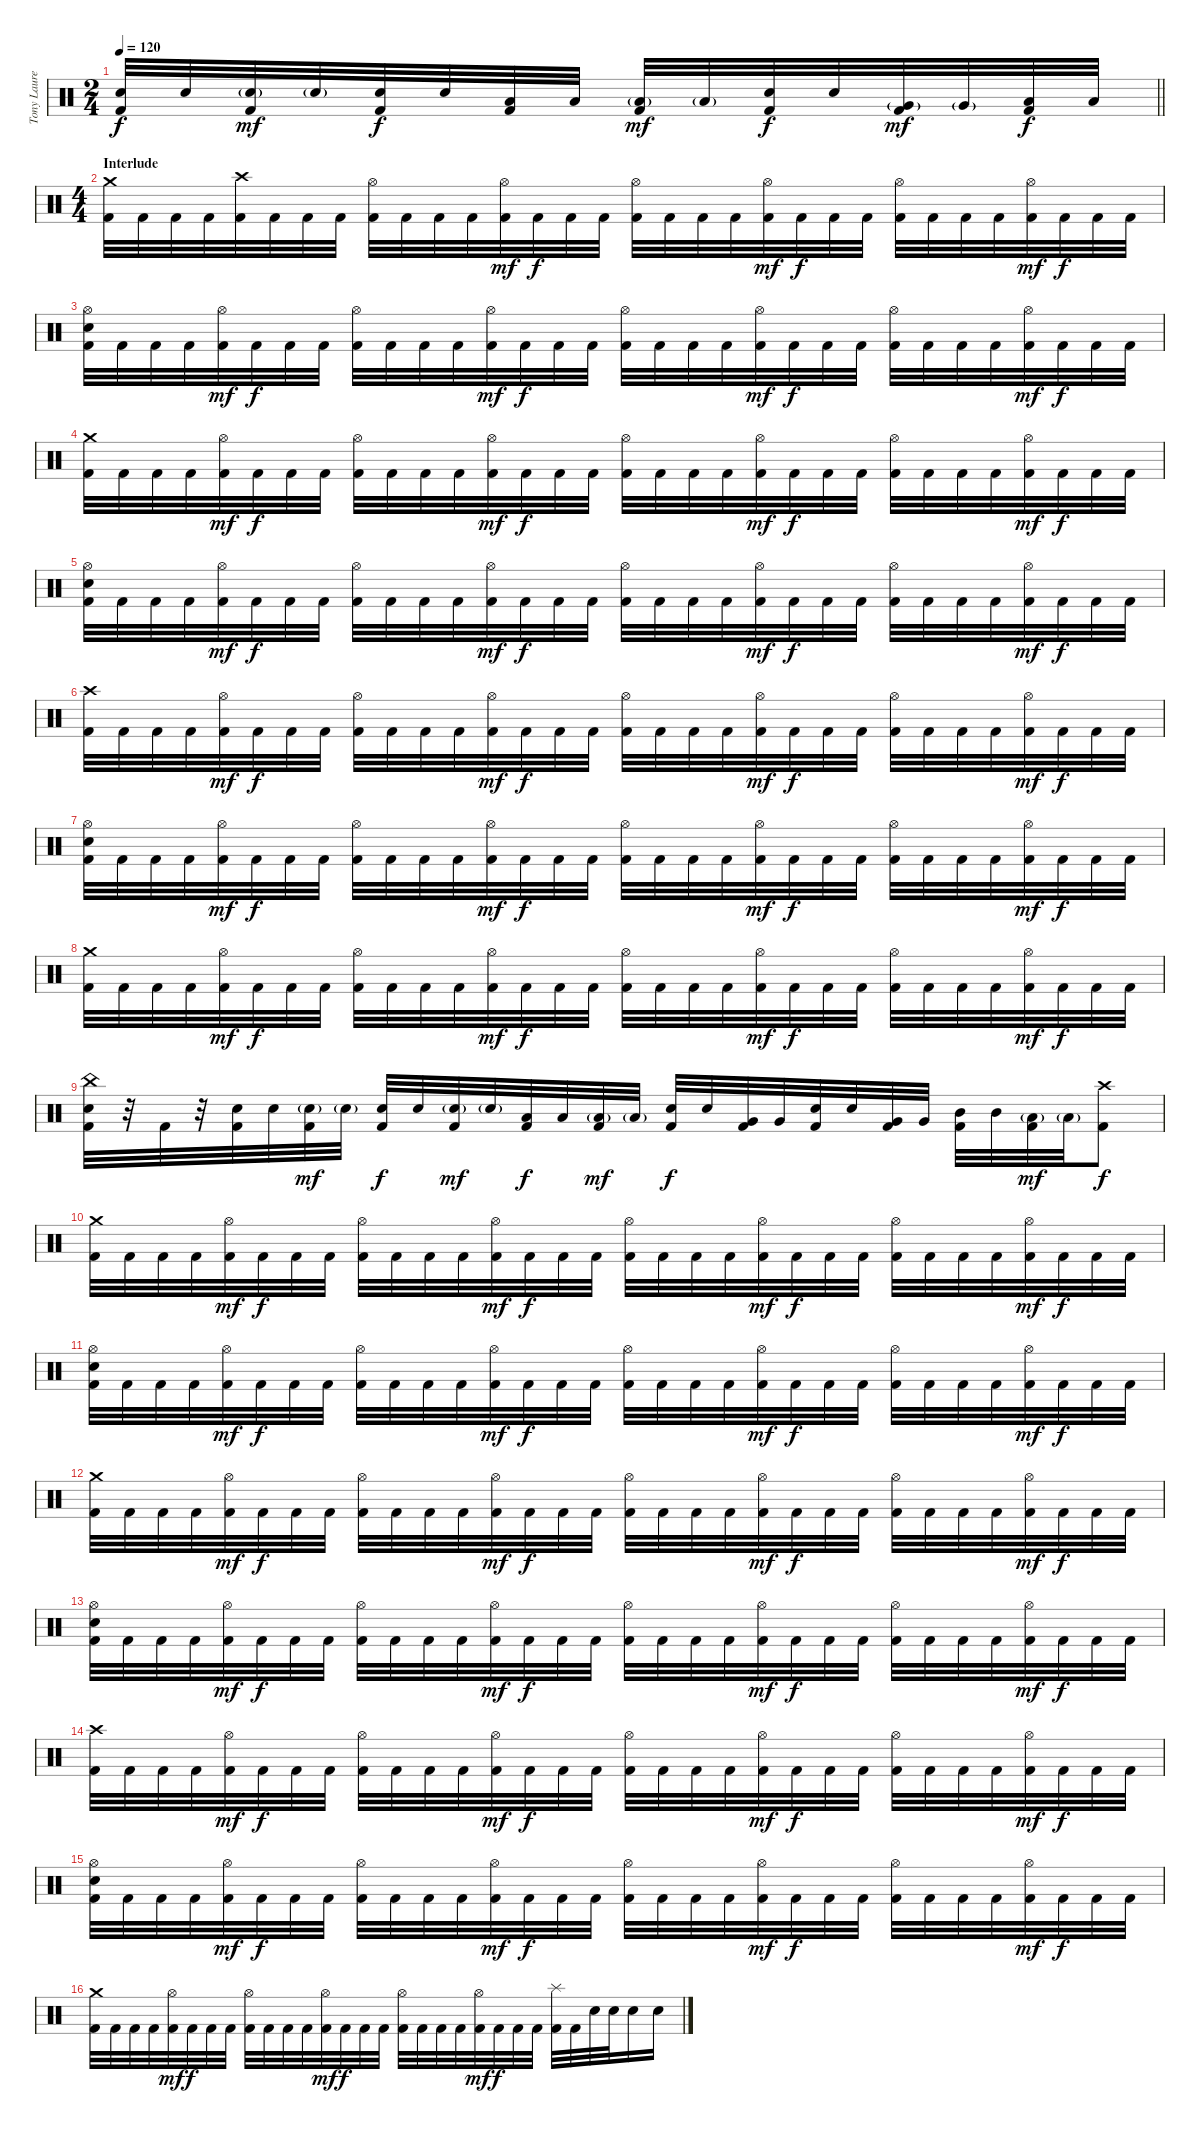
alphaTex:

\track ("Tony Laureano" "Tony Laure") {instrument percussion}
\staff {score}
\articulation defaults
\ts (2 4)
\tempo 120
\clef neutral
\barLineRight lightlight
\ks c
("Electric Snare (hit)" "Kick (hit) 2").32{dy f} "Electric Snare (hit)".32 ("Electric Snare (hit)"{g} "Kick (hit) 2").32{dy mf} "Electric Snare (hit)"{g}.32 ("Electric Snare (hit)" "Kick (hit) 2").32{dy f} "Electric Snare (hit)".32 ("Low Tom (hit)" "Kick (hit) 2").32 "Low Tom (hit)".32 ("Low Tom (hit)"{g} "Kick (hit) 2").32{dy mf} "Low Tom (hit)"{g}.32 ("Electric Snare (hit)" "Kick (hit) 2").32{dy f} "Electric Snare (hit)".32 ("Very Low Tom (hit)"{g} "Kick (hit) 2").32{dy mf} "Very Low Tom (hit)"{g}.32 ("Low Floor Tom (hit)" "Kick (hit) 2").32{dy f} "Low Floor Tom (hit)".32 |
\ts (4 4)
\section ("" "Interlude")
("Crash medium (hit)" "Kick (hit) 2").32 "Kick (hit) 2".32 "Kick (hit) 2".32 "Kick (hit) 2".32 ("Crash high (hit)" "Kick (hit) 2").32 "Kick (hit) 2".32 "Kick (hit) 2".32 "Kick (hit) 2".32 ("Hi-Hat (open)" "Kick (hit) 2").32 "Kick (hit) 2".32 "Kick (hit) 2".32 "Kick (hit) 2".32 ("Hi-Hat (open)" "Kick (hit) 2").32{dy mf} "Kick (hit) 2".32{dy f} "Kick (hit) 2".32 "Kick (hit) 2".32 ("Hi-Hat (open)" "Kick (hit) 2").32 "Kick (hit) 2".32 "Kick (hit) 2".32 "Kick (hit) 2".32 ("Hi-Hat (open)" "Kick (hit) 2").32{dy mf} "Kick (hit) 2".32{dy f} "Kick (hit) 2".32 "Kick (hit) 2".32 ("Hi-Hat (open)" "Kick (hit) 2").32 "Kick (hit) 2".32 "Kick (hit) 2".32 "Kick (hit) 2".32 ("Hi-Hat (open)" "Kick (hit) 2").32{dy mf} "Kick (hit) 2".32{dy f} "Kick (hit) 2".32 "Kick (hit) 2".32 |
("Hi-Hat (open)" "Electric Snare (hit)" "Kick (hit) 2").32 "Kick (hit) 2".32 "Kick (hit) 2".32 "Kick (hit) 2".32 ("Hi-Hat (open)" "Kick (hit) 2").32{dy mf} "Kick (hit) 2".32{dy f} "Kick (hit) 2".32 "Kick (hit) 2".32 ("Hi-Hat (open)" "Kick (hit) 2").32 "Kick (hit) 2".32 "Kick (hit) 2".32 "Kick (hit) 2".32 ("Hi-Hat (open)" "Kick (hit) 2").32{dy mf} "Kick (hit) 2".32{dy f} "Kick (hit) 2".32 "Kick (hit) 2".32 ("Hi-Hat (open)" "Kick (hit) 2").32 "Kick (hit) 2".32 "Kick (hit) 2".32 "Kick (hit) 2".32 ("Hi-Hat (open)" "Kick (hit) 2").32{dy mf} "Kick (hit) 2".32{dy f} "Kick (hit) 2".32 "Kick (hit) 2".32 ("Hi-Hat (open)" "Kick (hit) 2").32 "Kick (hit) 2".32 "Kick (hit) 2".32 "Kick (hit) 2".32 ("Hi-Hat (open)" "Kick (hit) 2").32{dy mf} "Kick (hit) 2".32{dy f} "Kick (hit) 2".32 "Kick (hit) 2".32 |
("Crash medium (hit)" "Kick (hit) 2").32 "Kick (hit) 2".32 "Kick (hit) 2".32 "Kick (hit) 2".32 ("Hi-Hat (open)" "Kick (hit) 2").32{dy mf} "Kick (hit) 2".32{dy f} "Kick (hit) 2".32 "Kick (hit) 2".32 ("Hi-Hat (open)" "Kick (hit) 2").32 "Kick (hit) 2".32 "Kick (hit) 2".32 "Kick (hit) 2".32 ("Hi-Hat (open)" "Kick (hit) 2").32{dy mf} "Kick (hit) 2".32{dy f} "Kick (hit) 2".32 "Kick (hit) 2".32 ("Hi-Hat (open)" "Kick (hit) 2").32 "Kick (hit) 2".32 "Kick (hit) 2".32 "Kick (hit) 2".32 ("Hi-Hat (open)" "Kick (hit) 2").32{dy mf} "Kick (hit) 2".32{dy f} "Kick (hit) 2".32 "Kick (hit) 2".32 ("Hi-Hat (open)" "Kick (hit) 2").32 "Kick (hit) 2".32 "Kick (hit) 2".32 "Kick (hit) 2".32 ("Hi-Hat (open)" "Kick (hit) 2").32{dy mf} "Kick (hit) 2".32{dy f} "Kick (hit) 2".32 "Kick (hit) 2".32 |
("Hi-Hat (open)" "Electric Snare (hit)" "Kick (hit) 2").32 "Kick (hit) 2".32 "Kick (hit) 2".32 "Kick (hit) 2".32 ("Hi-Hat (open)" "Kick (hit) 2").32{dy mf} "Kick (hit) 2".32{dy f} "Kick (hit) 2".32 "Kick (hit) 2".32 ("Hi-Hat (open)" "Kick (hit) 2").32 "Kick (hit) 2".32 "Kick (hit) 2".32 "Kick (hit) 2".32 ("Hi-Hat (open)" "Kick (hit) 2").32{dy mf} "Kick (hit) 2".32{dy f} "Kick (hit) 2".32 "Kick (hit) 2".32 ("Hi-Hat (open)" "Kick (hit) 2").32 "Kick (hit) 2".32 "Kick (hit) 2".32 "Kick (hit) 2".32 ("Hi-Hat (open)" "Kick (hit) 2").32{dy mf} "Kick (hit) 2".32{dy f} "Kick (hit) 2".32 "Kick (hit) 2".32 ("Hi-Hat (open)" "Kick (hit) 2").32 "Kick (hit) 2".32 "Kick (hit) 2".32 "Kick (hit) 2".32 ("Hi-Hat (open)" "Kick (hit) 2").32{dy mf} "Kick (hit) 2".32{dy f} "Kick (hit) 2".32 "Kick (hit) 2".32 |
("Crash high (hit)" "Kick (hit) 2").32 "Kick (hit) 2".32 "Kick (hit) 2".32 "Kick (hit) 2".32 ("Hi-Hat (open)" "Kick (hit) 2").32{dy mf} "Kick (hit) 2".32{dy f} "Kick (hit) 2".32 "Kick (hit) 2".32 ("Hi-Hat (open)" "Kick (hit) 2").32 "Kick (hit) 2".32 "Kick (hit) 2".32 "Kick (hit) 2".32 ("Hi-Hat (open)" "Kick (hit) 2").32{dy mf} "Kick (hit) 2".32{dy f} "Kick (hit) 2".32 "Kick (hit) 2".32 ("Hi-Hat (open)" "Kick (hit) 2").32 "Kick (hit) 2".32 "Kick (hit) 2".32 "Kick (hit) 2".32 ("Hi-Hat (open)" "Kick (hit) 2").32{dy mf} "Kick (hit) 2".32{dy f} "Kick (hit) 2".32 "Kick (hit) 2".32 ("Hi-Hat (open)" "Kick (hit) 2").32 "Kick (hit) 2".32 "Kick (hit) 2".32 "Kick (hit) 2".32 ("Hi-Hat (open)" "Kick (hit) 2").32{dy mf} "Kick (hit) 2".32{dy f} "Kick (hit) 2".32 "Kick (hit) 2".32 |
("Hi-Hat (open)" "Electric Snare (hit)" "Kick (hit) 2").32 "Kick (hit) 2".32 "Kick (hit) 2".32 "Kick (hit) 2".32 ("Hi-Hat (open)" "Kick (hit) 2").32{dy mf} "Kick (hit) 2".32{dy f} "Kick (hit) 2".32 "Kick (hit) 2".32 ("Hi-Hat (open)" "Kick (hit) 2").32 "Kick (hit) 2".32 "Kick (hit) 2".32 "Kick (hit) 2".32 ("Hi-Hat (open)" "Kick (hit) 2").32{dy mf} "Kick (hit) 2".32{dy f} "Kick (hit) 2".32 "Kick (hit) 2".32 ("Hi-Hat (open)" "Kick (hit) 2").32 "Kick (hit) 2".32 "Kick (hit) 2".32 "Kick (hit) 2".32 ("Hi-Hat (open)" "Kick (hit) 2").32{dy mf} "Kick (hit) 2".32{dy f} "Kick (hit) 2".32 "Kick (hit) 2".32 ("Hi-Hat (open)" "Kick (hit) 2").32 "Kick (hit) 2".32 "Kick (hit) 2".32 "Kick (hit) 2".32 ("Hi-Hat (open)" "Kick (hit) 2").32{dy mf} "Kick (hit) 2".32{dy f} "Kick (hit) 2".32 "Kick (hit) 2".32 |
("Crash medium (hit)" "Kick (hit) 2").32 "Kick (hit) 2".32 "Kick (hit) 2".32 "Kick (hit) 2".32 ("Hi-Hat (open)" "Kick (hit) 2").32{dy mf} "Kick (hit) 2".32{dy f} "Kick (hit) 2".32 "Kick (hit) 2".32 ("Hi-Hat (open)" "Kick (hit) 2").32 "Kick (hit) 2".32 "Kick (hit) 2".32 "Kick (hit) 2".32 ("Hi-Hat (open)" "Kick (hit) 2").32{dy mf} "Kick (hit) 2".32{dy f} "Kick (hit) 2".32 "Kick (hit) 2".32 ("Hi-Hat (open)" "Kick (hit) 2").32 "Kick (hit) 2".32 "Kick (hit) 2".32 "Kick (hit) 2".32 ("Hi-Hat (open)" "Kick (hit) 2").32{dy mf} "Kick (hit) 2".32{dy f} "Kick (hit) 2".32 "Kick (hit) 2".32 ("Hi-Hat (open)" "Kick (hit) 2").32 "Kick (hit) 2".32 "Kick (hit) 2".32 "Kick (hit) 2".32 ("Hi-Hat (open)" "Kick (hit) 2").32{dy mf} "Kick (hit) 2".32{dy f} "Kick (hit) 2".32 "Kick (hit) 2".32 |
("China (hit)" "Electric Snare (hit)" "Kick (hit) 2").32 r.32 "Kick (hit) 2".32 r.32 ("Electric Snare (hit)" "Kick (hit) 2").32 "Electric Snare (hit)".32 ("Electric Snare (hit)"{g} "Kick (hit) 2").32{dy mf} "Electric Snare (hit)"{g}.32 ("Electric Snare (hit)" "Kick (hit) 2").32{dy f} "Electric Snare (hit)".32 ("Electric Snare (hit)"{g} "Kick (hit) 2").32{dy mf} "Electric Snare (hit)"{g}.32 ("Low Tom (hit)" "Kick (hit) 2").32{dy f} "Low Tom (hit)".32 ("Low Tom (hit)"{g} "Kick (hit) 2").32{dy mf} "Low Tom (hit)"{g}.32 ("Electric Snare (hit)" "Kick (hit) 2").32{dy f} "Electric Snare (hit)".32 ("Very Low Tom (hit)" "Kick (hit) 2").32 "Very Low Tom (hit)".32 ("Electric Snare (hit)" "Kick (hit) 2").32 "Electric Snare (hit)".32 ("Very Low Tom (hit)" "Kick (hit) 2").32 "Very Low Tom (hit)".32 ("Mid Tom (hit)" "Kick (hit) 2").32 "Mid Tom (hit)".32 ("Low Tom (hit)"{g} "Kick (hit) 2").32{dy mf} "Low Tom (hit)"{g}.32 ("Crash high (hit)" "Kick (hit) 2").8{dy f} |
("Crash medium (hit)" "Kick (hit) 2").32 "Kick (hit) 2".32 "Kick (hit) 2".32 "Kick (hit) 2".32 ("Hi-Hat (open)" "Kick (hit) 2").32{dy mf} "Kick (hit) 2".32{dy f} "Kick (hit) 2".32 "Kick (hit) 2".32 ("Hi-Hat (open)" "Kick (hit) 2").32 "Kick (hit) 2".32 "Kick (hit) 2".32 "Kick (hit) 2".32 ("Hi-Hat (open)" "Kick (hit) 2").32{dy mf} "Kick (hit) 2".32{dy f} "Kick (hit) 2".32 "Kick (hit) 2".32 ("Hi-Hat (open)" "Kick (hit) 2").32 "Kick (hit) 2".32 "Kick (hit) 2".32 "Kick (hit) 2".32 ("Hi-Hat (open)" "Kick (hit) 2").32{dy mf} "Kick (hit) 2".32{dy f} "Kick (hit) 2".32 "Kick (hit) 2".32 ("Hi-Hat (open)" "Kick (hit) 2").32 "Kick (hit) 2".32 "Kick (hit) 2".32 "Kick (hit) 2".32 ("Hi-Hat (open)" "Kick (hit) 2").32{dy mf} "Kick (hit) 2".32{dy f} "Kick (hit) 2".32 "Kick (hit) 2".32 |
("Hi-Hat (open)" "Electric Snare (hit)" "Kick (hit) 2").32 "Kick (hit) 2".32 "Kick (hit) 2".32 "Kick (hit) 2".32 ("Hi-Hat (open)" "Kick (hit) 2").32{dy mf} "Kick (hit) 2".32{dy f} "Kick (hit) 2".32 "Kick (hit) 2".32 ("Hi-Hat (open)" "Kick (hit) 2").32 "Kick (hit) 2".32 "Kick (hit) 2".32 "Kick (hit) 2".32 ("Hi-Hat (open)" "Kick (hit) 2").32{dy mf} "Kick (hit) 2".32{dy f} "Kick (hit) 2".32 "Kick (hit) 2".32 ("Hi-Hat (open)" "Kick (hit) 2").32 "Kick (hit) 2".32 "Kick (hit) 2".32 "Kick (hit) 2".32 ("Hi-Hat (open)" "Kick (hit) 2").32{dy mf} "Kick (hit) 2".32{dy f} "Kick (hit) 2".32 "Kick (hit) 2".32 ("Hi-Hat (open)" "Kick (hit) 2").32 "Kick (hit) 2".32 "Kick (hit) 2".32 "Kick (hit) 2".32 ("Hi-Hat (open)" "Kick (hit) 2").32{dy mf} "Kick (hit) 2".32{dy f} "Kick (hit) 2".32 "Kick (hit) 2".32 |
("Crash medium (hit)" "Kick (hit) 2").32 "Kick (hit) 2".32 "Kick (hit) 2".32 "Kick (hit) 2".32 ("Hi-Hat (open)" "Kick (hit) 2").32{dy mf} "Kick (hit) 2".32{dy f} "Kick (hit) 2".32 "Kick (hit) 2".32 ("Hi-Hat (open)" "Kick (hit) 2").32 "Kick (hit) 2".32 "Kick (hit) 2".32 "Kick (hit) 2".32 ("Hi-Hat (open)" "Kick (hit) 2").32{dy mf} "Kick (hit) 2".32{dy f} "Kick (hit) 2".32 "Kick (hit) 2".32 ("Hi-Hat (open)" "Kick (hit) 2").32 "Kick (hit) 2".32 "Kick (hit) 2".32 "Kick (hit) 2".32 ("Hi-Hat (open)" "Kick (hit) 2").32{dy mf} "Kick (hit) 2".32{dy f} "Kick (hit) 2".32 "Kick (hit) 2".32 ("Hi-Hat (open)" "Kick (hit) 2").32 "Kick (hit) 2".32 "Kick (hit) 2".32 "Kick (hit) 2".32 ("Hi-Hat (open)" "Kick (hit) 2").32{dy mf} "Kick (hit) 2".32{dy f} "Kick (hit) 2".32 "Kick (hit) 2".32 |
("Hi-Hat (open)" "Electric Snare (hit)" "Kick (hit) 2").32 "Kick (hit) 2".32 "Kick (hit) 2".32 "Kick (hit) 2".32 ("Hi-Hat (open)" "Kick (hit) 2").32{dy mf} "Kick (hit) 2".32{dy f} "Kick (hit) 2".32 "Kick (hit) 2".32 ("Hi-Hat (open)" "Kick (hit) 2").32 "Kick (hit) 2".32 "Kick (hit) 2".32 "Kick (hit) 2".32 ("Hi-Hat (open)" "Kick (hit) 2").32{dy mf} "Kick (hit) 2".32{dy f} "Kick (hit) 2".32 "Kick (hit) 2".32 ("Hi-Hat (open)" "Kick (hit) 2").32 "Kick (hit) 2".32 "Kick (hit) 2".32 "Kick (hit) 2".32 ("Hi-Hat (open)" "Kick (hit) 2").32{dy mf} "Kick (hit) 2".32{dy f} "Kick (hit) 2".32 "Kick (hit) 2".32 ("Hi-Hat (open)" "Kick (hit) 2").32 "Kick (hit) 2".32 "Kick (hit) 2".32 "Kick (hit) 2".32 ("Hi-Hat (open)" "Kick (hit) 2").32{dy mf} "Kick (hit) 2".32{dy f} "Kick (hit) 2".32 "Kick (hit) 2".32 |
("Crash high (hit)" "Kick (hit) 2").32 "Kick (hit) 2".32 "Kick (hit) 2".32 "Kick (hit) 2".32 ("Hi-Hat (open)" "Kick (hit) 2").32{dy mf} "Kick (hit) 2".32{dy f} "Kick (hit) 2".32 "Kick (hit) 2".32 ("Hi-Hat (open)" "Kick (hit) 2").32 "Kick (hit) 2".32 "Kick (hit) 2".32 "Kick (hit) 2".32 ("Hi-Hat (open)" "Kick (hit) 2").32{dy mf} "Kick (hit) 2".32{dy f} "Kick (hit) 2".32 "Kick (hit) 2".32 ("Hi-Hat (open)" "Kick (hit) 2").32 "Kick (hit) 2".32 "Kick (hit) 2".32 "Kick (hit) 2".32 ("Hi-Hat (open)" "Kick (hit) 2").32{dy mf} "Kick (hit) 2".32{dy f} "Kick (hit) 2".32 "Kick (hit) 2".32 ("Hi-Hat (open)" "Kick (hit) 2").32 "Kick (hit) 2".32 "Kick (hit) 2".32 "Kick (hit) 2".32 ("Hi-Hat (open)" "Kick (hit) 2").32{dy mf} "Kick (hit) 2".32{dy f} "Kick (hit) 2".32 "Kick (hit) 2".32 |
("Hi-Hat (open)" "Electric Snare (hit)" "Kick (hit) 2").32 "Kick (hit) 2".32 "Kick (hit) 2".32 "Kick (hit) 2".32 ("Hi-Hat (open)" "Kick (hit) 2").32{dy mf} "Kick (hit) 2".32{dy f} "Kick (hit) 2".32 "Kick (hit) 2".32 ("Hi-Hat (open)" "Kick (hit) 2").32 "Kick (hit) 2".32 "Kick (hit) 2".32 "Kick (hit) 2".32 ("Hi-Hat (open)" "Kick (hit) 2").32{dy mf} "Kick (hit) 2".32{dy f} "Kick (hit) 2".32 "Kick (hit) 2".32 ("Hi-Hat (open)" "Kick (hit) 2").32 "Kick (hit) 2".32 "Kick (hit) 2".32 "Kick (hit) 2".32 ("Hi-Hat (open)" "Kick (hit) 2").32{dy mf} "Kick (hit) 2".32{dy f} "Kick (hit) 2".32 "Kick (hit) 2".32 ("Hi-Hat (open)" "Kick (hit) 2").32 "Kick (hit) 2".32 "Kick (hit) 2".32 "Kick (hit) 2".32 ("Hi-Hat (open)" "Kick (hit) 2").32{dy mf} "Kick (hit) 2".32{dy f} "Kick (hit) 2".32 "Kick (hit) 2".32 |
("Crash medium (hit)" "Kick (hit) 2").32 "Kick (hit) 2".32 "Kick (hit) 2".32 "Kick (hit) 2".32 ("Hi-Hat (open)" "Kick (hit) 2").32{dy mf} "Kick (hit) 2".32{dy f} "Kick (hit) 2".32 "Kick (hit) 2".32 ("Hi-Hat (open)" "Kick (hit) 2").32 "Kick (hit) 2".32 "Kick (hit) 2".32 "Kick (hit) 2".32 ("Hi-Hat (open)" "Kick (hit) 2").32{dy mf} "Kick (hit) 2".32{dy f} "Kick (hit) 2".32 "Kick (hit) 2".32 ("Hi-Hat (open)" "Kick (hit) 2").32 "Kick (hit) 2".32 "Kick (hit) 2".32 "Kick (hit) 2".32 ("Hi-Hat (open)" "Kick (hit) 2").32{dy mf} "Kick (hit) 2".32{dy f} "Kick (hit) 2".32 "Kick (hit) 2".32 ("Splash (hit)" "Kick (hit) 2").32 "Kick (hit) 2".32 "Electric Snare (hit)".32 "Electric Snare (hit)".32 "Electric Snare (hit)".16 "Electric Snare (hit)".16
